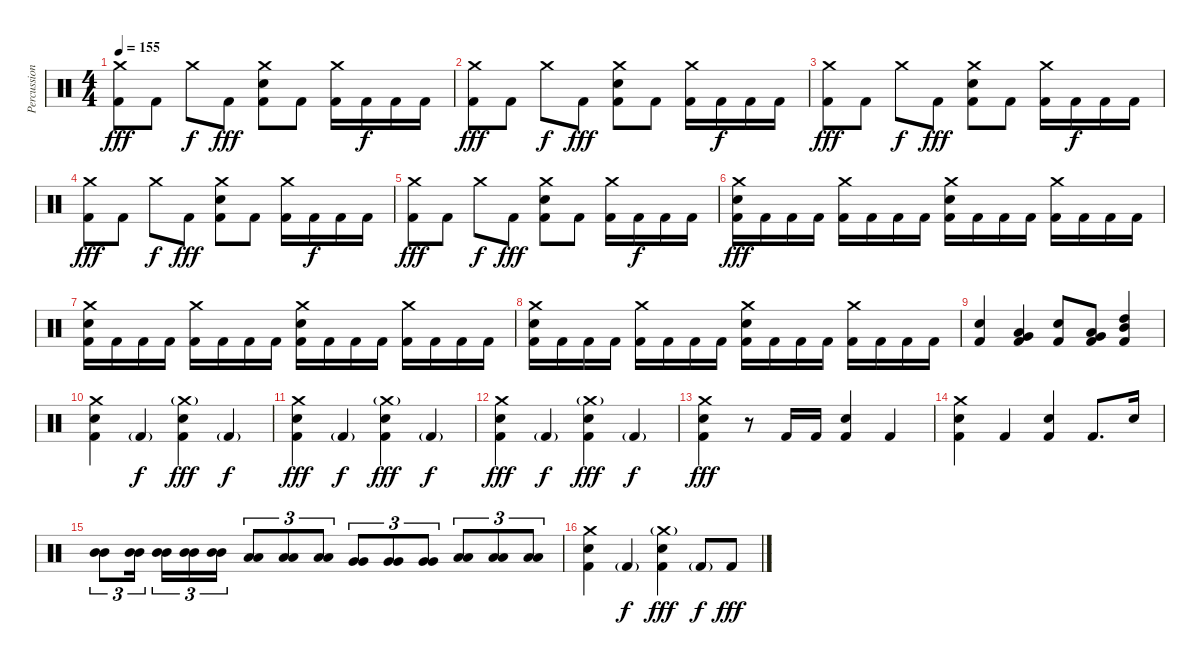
\track ("Percussion" "Percussion") {instrument percussion}
\staff {score}
\articulation defaults
\ts (4 4)
\tempo 155
\clef neutral
\ks c
("Crash medium (hit)" "Kick (hit) 2").8{dy fff} "Kick (hit) 2".8 "Crash medium (hit)".8{dy f} "Kick (hit) 2".8{dy fff} ("Crash medium (hit)" "Electric Snare (hit)" "Kick (hit) 2").8 "Kick (hit) 2".8 ("Crash medium (hit)" "Kick (hit) 2").16 "Kick (hit) 2".16{dy f} "Kick (hit) 2".16 "Kick (hit) 2".16 |
("Crash medium (hit)" "Kick (hit) 2").8{dy fff} "Kick (hit) 2".8 "Crash medium (hit)".8{dy f} "Kick (hit) 2".8{dy fff} ("Crash medium (hit)" "Electric Snare (hit)" "Kick (hit) 2").8 "Kick (hit) 2".8 ("Crash medium (hit)" "Kick (hit) 2").16 "Kick (hit) 2".16{dy f} "Kick (hit) 2".16 "Kick (hit) 2".16 |
("Crash medium (hit)" "Kick (hit) 2").8{dy fff} "Kick (hit) 2".8 "Crash medium (hit)".8{dy f} "Kick (hit) 2".8{dy fff} ("Crash medium (hit)" "Electric Snare (hit)" "Kick (hit) 2").8 "Kick (hit) 2".8 ("Crash medium (hit)" "Kick (hit) 2").16 "Kick (hit) 2".16{dy f} "Kick (hit) 2".16 "Kick (hit) 2".16 |
("Crash medium (hit)" "Kick (hit) 2").8{dy fff} "Kick (hit) 2".8 "Crash medium (hit)".8{dy f} "Kick (hit) 2".8{dy fff} ("Crash medium (hit)" "Electric Snare (hit)" "Kick (hit) 2").8 "Kick (hit) 2".8 ("Crash medium (hit)" "Kick (hit) 2").16 "Kick (hit) 2".16{dy f} "Kick (hit) 2".16 "Kick (hit) 2".16 |
("Crash medium (hit)" "Kick (hit) 2").8{dy fff} "Kick (hit) 2".8 "Crash medium (hit)".8{dy f} "Kick (hit) 2".8{dy fff} ("Crash medium (hit)" "Electric Snare (hit)" "Kick (hit) 2").8 "Kick (hit) 2".8 ("Crash medium (hit)" "Kick (hit) 2").16 "Kick (hit) 2".16{dy f} "Kick (hit) 2".16 "Kick (hit) 2".16 |
("Crash medium (hit)" "Electric Snare (hit)" "Kick (hit) 2").16{dy fff} "Kick (hit) 2".16 "Kick (hit) 2".16 "Kick (hit) 2".16 ("Crash medium (hit)" "Kick (hit) 2").16 "Kick (hit) 2".16 "Kick (hit) 2".16 "Kick (hit) 2".16 ("Crash medium (hit)" "Electric Snare (hit)" "Kick (hit) 2").16 "Kick (hit) 2".16 "Kick (hit) 2".16 "Kick (hit) 2".16 ("Crash medium (hit)" "Kick (hit) 2").16 "Kick (hit) 2".16 "Kick (hit) 2".16 "Kick (hit) 2".16 |
("Crash medium (hit)" "Electric Snare (hit)" "Kick (hit) 2").16 "Kick (hit) 2".16 "Kick (hit) 2".16 "Kick (hit) 2".16 ("Crash medium (hit)" "Kick (hit) 2").16 "Kick (hit) 2".16 "Kick (hit) 2".16 "Kick (hit) 2".16 ("Crash medium (hit)" "Electric Snare (hit)" "Kick (hit) 2").16 "Kick (hit) 2".16 "Kick (hit) 2".16 "Kick (hit) 2".16 ("Crash medium (hit)" "Kick (hit) 2").16 "Kick (hit) 2".16 "Kick (hit) 2".16 "Kick (hit) 2".16 |
("Crash medium (hit)" "Electric Snare (hit)" "Kick (hit) 2").16 "Kick (hit) 2".16 "Kick (hit) 2".16 "Kick (hit) 2".16 ("Crash medium (hit)" "Kick (hit) 2").16 "Kick (hit) 2".16 "Kick (hit) 2".16 "Kick (hit) 2".16 ("Crash medium (hit)" "Electric Snare (hit)" "Kick (hit) 2").16 "Kick (hit) 2".16 "Kick (hit) 2".16 "Kick (hit) 2".16 ("Crash medium (hit)" "Kick (hit) 2").16 "Kick (hit) 2".16 "Kick (hit) 2".16 "Kick (hit) 2".16 |
("Electric Snare (hit)" "Kick (hit) 2").4 ("Very Low Tom (hit)" "Low Tom (hit)" "Kick (hit) 2").4 ("Electric Snare (hit)" "Kick (hit) 2").8 ("Very Low Tom (hit)" "Low Tom (hit)" "Kick (hit) 2").8 ("Mid Tom (hit)" "High Tom (hit)" "Kick (hit) 2").4 |
("Crash medium (hit)" "Electric Snare (hit)" "Kick (hit) 2").4 "Kick (hit) 2"{g}.4{dy f} ("Crash medium (hit)"{g} "Electric Snare (hit)" "Kick (hit) 2").4{dy fff} "Kick (hit) 2"{g}.4{dy f} |
("Crash medium (hit)" "Electric Snare (hit)" "Kick (hit) 2").4{dy fff} "Kick (hit) 2"{g}.4{dy f} ("Crash medium (hit)"{g} "Electric Snare (hit)" "Kick (hit) 2").4{dy fff} "Kick (hit) 2"{g}.4{dy f} |
("Crash medium (hit)" "Electric Snare (hit)" "Kick (hit) 2").4{dy fff} "Kick (hit) 2"{g}.4{dy f} ("Crash medium (hit)"{g} "Electric Snare (hit)" "Kick (hit) 2").4{dy fff} "Kick (hit) 2"{g}.4{dy f} |
("Crash medium (hit)" "Electric Snare (hit)" "Kick (hit) 2").4{dy fff} r.8 "Kick (hit) 2".16 "Kick (hit) 2".16 ("Electric Snare (hit)" "Kick (hit) 2").4 "Kick (hit) 2".4 |
("Crash medium (hit)" "Electric Snare (hit)" "Kick (hit) 2").4 "Kick (hit) 2".4 ("Electric Snare (hit)" "Kick (hit) 2").4 "Kick (hit) 2".8{d} "Electric Snare (hit)".16 |
("Mid Tom (hit)" "Mid Tom (hit)").8{tu (3 2)} ("Mid Tom (hit)" "Mid Tom (hit)").16{tu (3 2) beam splitsecondary} ("Mid Tom (hit)" "Mid Tom (hit)").16{tu (3 2)} ("Mid Tom (hit)" "Mid Tom (hit)").16{tu (3 2)} ("Mid Tom (hit)" "Mid Tom (hit)").16{tu (3 2)} ("Low Tom (hit)" "Low Tom (hit)").8{tu (3 2)} ("Low Tom (hit)" "Low Tom (hit)").8{tu (3 2)} ("Low Tom (hit)" "Low Tom (hit)").8{tu (3 2)} ("Very Low Tom (hit)" "Very Low Tom (hit)").8{tu (3 2)} ("Very Low Tom (hit)" "Very Low Tom (hit)").8{tu (3 2)} ("Very Low Tom (hit)" "Very Low Tom (hit)").8{tu (3 2)} ("Low Floor Tom (hit)" "Low Floor Tom (hit)").8{tu (3 2)} ("Low Floor Tom (hit)" "Low Floor Tom (hit)").8{tu (3 2)} ("Low Floor Tom (hit)" "Low Floor Tom (hit)").8{tu (3 2)} |
("Crash medium (hit)" "Electric Snare (hit)" "Kick (hit) 2").4 "Kick (hit) 2"{g}.4{dy f} ("Crash medium (hit)"{g} "Electric Snare (hit)" "Kick (hit) 2").4{dy fff} "Kick (hit) 2"{g}.8{dy f} "Kick (hit) 2".8{dy fff}
